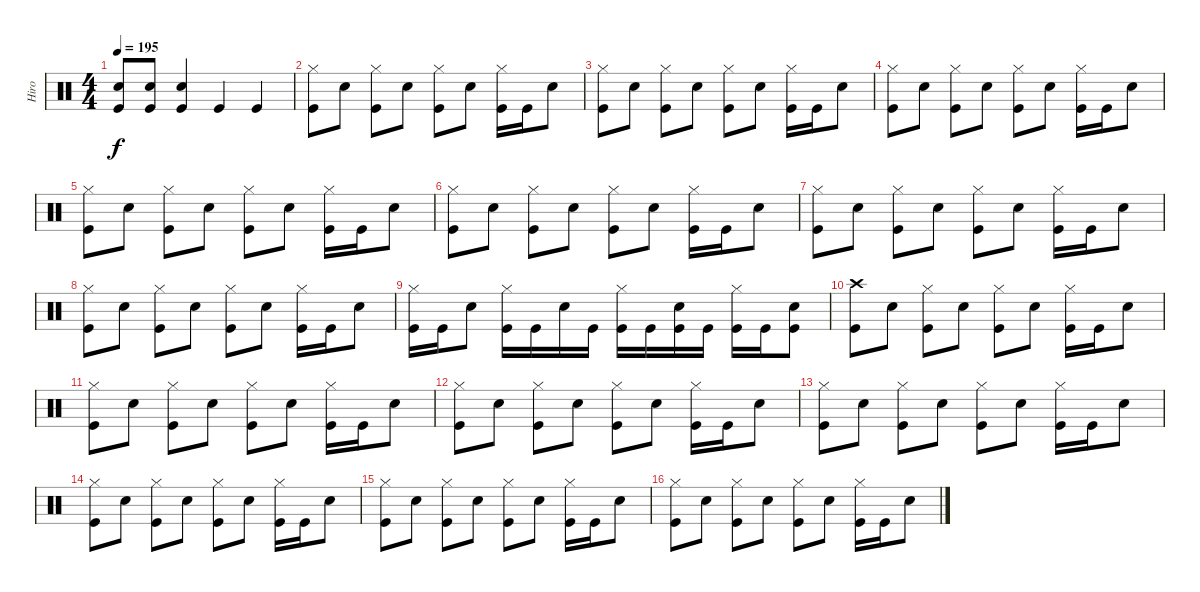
\track ("Hiro" "Hiro") {instrument percussion}
\staff {score}
\articulation defaults
\ts (4 4)
\tempo 195
\clef neutral
\ks c
("Snare (hit) 2" "Kick (hit)").8{dy f} ("Snare (hit) 2" "Kick (hit)").8 ("Snare (hit) 2" "Kick (hit)").4 "Kick (hit)".4 "Kick (hit)".4 |
("Kick (hit)" "Hi-Hat (closed)").8 "Snare (hit) 2".8 ("Kick (hit)" "Hi-Hat (closed)").8 "Snare (hit) 2".8 ("Kick (hit)" "Hi-Hat (closed)").8 "Snare (hit) 2".8 ("Kick (hit)" "Hi-Hat (closed)").16 "Kick (hit)".16 "Snare (hit) 2".8 |
("Kick (hit)" "Hi-Hat (closed)").8 "Snare (hit) 2".8 ("Kick (hit)" "Hi-Hat (closed)").8 "Snare (hit) 2".8 ("Kick (hit)" "Hi-Hat (closed)").8 "Snare (hit) 2".8 ("Kick (hit)" "Hi-Hat (closed)").16 "Kick (hit)".16 "Snare (hit) 2".8 |
("Kick (hit)" "Hi-Hat (closed)").8 "Snare (hit) 2".8 ("Kick (hit)" "Hi-Hat (closed)").8 "Snare (hit) 2".8 ("Kick (hit)" "Hi-Hat (closed)").8 "Snare (hit) 2".8 ("Kick (hit)" "Hi-Hat (closed)").16 "Kick (hit)".16 "Snare (hit) 2".8 |
("Kick (hit)" "Hi-Hat (closed)").8 "Snare (hit) 2".8 ("Kick (hit)" "Hi-Hat (closed)").8 "Snare (hit) 2".8 ("Kick (hit)" "Hi-Hat (closed)").8 "Snare (hit) 2".8 ("Kick (hit)" "Hi-Hat (closed)").16 "Kick (hit)".16 "Snare (hit) 2".8 |
("Kick (hit)" "Hi-Hat (closed)").8 "Snare (hit) 2".8 ("Kick (hit)" "Hi-Hat (closed)").8 "Snare (hit) 2".8 ("Kick (hit)" "Hi-Hat (closed)").8 "Snare (hit) 2".8 ("Kick (hit)" "Hi-Hat (closed)").16 "Kick (hit)".16 "Snare (hit) 2".8 |
("Kick (hit)" "Hi-Hat (closed)").8 "Snare (hit) 2".8 ("Kick (hit)" "Hi-Hat (closed)").8 "Snare (hit) 2".8 ("Kick (hit)" "Hi-Hat (closed)").8 "Snare (hit) 2".8 ("Kick (hit)" "Hi-Hat (closed)").16 "Kick (hit)".16 "Snare (hit) 2".8 |
("Kick (hit)" "Hi-Hat (closed)").8 "Snare (hit) 2".8 ("Kick (hit)" "Hi-Hat (closed)").8 "Snare (hit) 2".8 ("Kick (hit)" "Hi-Hat (closed)").8 "Snare (hit) 2".8 ("Kick (hit)" "Hi-Hat (closed)").16 "Kick (hit)".16 "Snare (hit) 2".8 |
("Kick (hit)" "Hi-Hat (closed)").16 "Kick (hit)".16 "Snare (hit) 2".8 ("Kick (hit)" "Hi-Hat (closed)").16 "Kick (hit)".16 "Snare (hit) 2".16 "Kick (hit)".16 ("Kick (hit)" "Hi-Hat (closed)").16 "Kick (hit)".16 ("Snare (hit) 2" "Kick (hit)").16 "Kick (hit)".16 ("Kick (hit)" "Hi-Hat (closed)").16 "Kick (hit)".16 ("Snare (hit) 2" "Kick (hit)").8 |
("Kick (hit)" "Crash high (hit)").8 "Snare (hit) 2".8 ("Kick (hit)" "Hi-Hat (closed)").8 "Snare (hit) 2".8 ("Kick (hit)" "Hi-Hat (closed)").8 "Snare (hit) 2".8 ("Kick (hit)" "Hi-Hat (closed)").16 "Kick (hit)".16 "Snare (hit) 2".8 |
("Kick (hit)" "Hi-Hat (closed)").8 "Snare (hit) 2".8 ("Kick (hit)" "Hi-Hat (closed)").8 "Snare (hit) 2".8 ("Kick (hit)" "Hi-Hat (closed)").8 "Snare (hit) 2".8 ("Kick (hit)" "Hi-Hat (closed)").16 "Kick (hit)".16 "Snare (hit) 2".8 |
("Kick (hit)" "Hi-Hat (closed)").8 "Snare (hit) 2".8 ("Kick (hit)" "Hi-Hat (closed)").8 "Snare (hit) 2".8 ("Kick (hit)" "Hi-Hat (closed)").8 "Snare (hit) 2".8 ("Kick (hit)" "Hi-Hat (closed)").16 "Kick (hit)".16 "Snare (hit) 2".8 |
("Kick (hit)" "Hi-Hat (closed)").8 "Snare (hit) 2".8 ("Kick (hit)" "Hi-Hat (closed)").8 "Snare (hit) 2".8 ("Kick (hit)" "Hi-Hat (closed)").8 "Snare (hit) 2".8 ("Kick (hit)" "Hi-Hat (closed)").16 "Kick (hit)".16 "Snare (hit) 2".8 |
("Kick (hit)" "Hi-Hat (closed)").8 "Snare (hit) 2".8 ("Kick (hit)" "Hi-Hat (closed)").8 "Snare (hit) 2".8 ("Kick (hit)" "Hi-Hat (closed)").8 "Snare (hit) 2".8 ("Kick (hit)" "Hi-Hat (closed)").16 "Kick (hit)".16 "Snare (hit) 2".8 |
("Kick (hit)" "Hi-Hat (closed)").8 "Snare (hit) 2".8 ("Kick (hit)" "Hi-Hat (closed)").8 "Snare (hit) 2".8 ("Kick (hit)" "Hi-Hat (closed)").8 "Snare (hit) 2".8 ("Kick (hit)" "Hi-Hat (closed)").16 "Kick (hit)".16 "Snare (hit) 2".8 |
("Kick (hit)" "Hi-Hat (closed)").8 "Snare (hit) 2".8 ("Kick (hit)" "Hi-Hat (closed)").8 "Snare (hit) 2".8 ("Kick (hit)" "Hi-Hat (closed)").8 "Snare (hit) 2".8 ("Kick (hit)" "Hi-Hat (closed)").16 "Kick (hit)".16 "Snare (hit) 2".8
